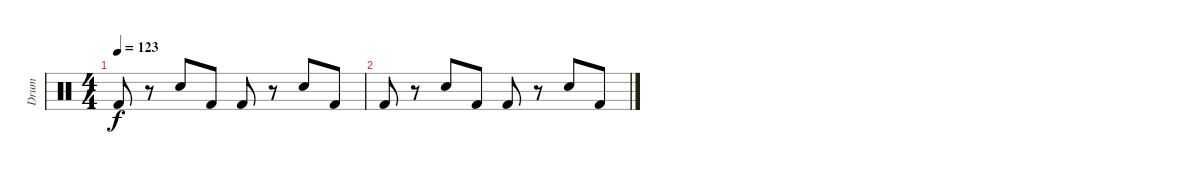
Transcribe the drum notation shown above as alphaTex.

\track ("Drum" "Drum") {instrument percussion}
\staff {score}
\articulation defaults
\ts (4 4)
\tempo 123
\clef neutral
\ks c "Kick (hit) 2".8{dy f volume 4}
r.8 "Electric Snare (hit)".8 "Kick (hit) 2".8 "Kick (hit) 2".8 r.8 "Electric Snare (hit)".8 "Kick (hit) 2".8 |
"Kick (hit) 2".8{volume 3} r.8 "Electric Snare (hit)".8 "Kick (hit) 2".8 "Kick (hit) 2".8 r.8 "Electric Snare (hit)".8 "Kick (hit) 2".8
